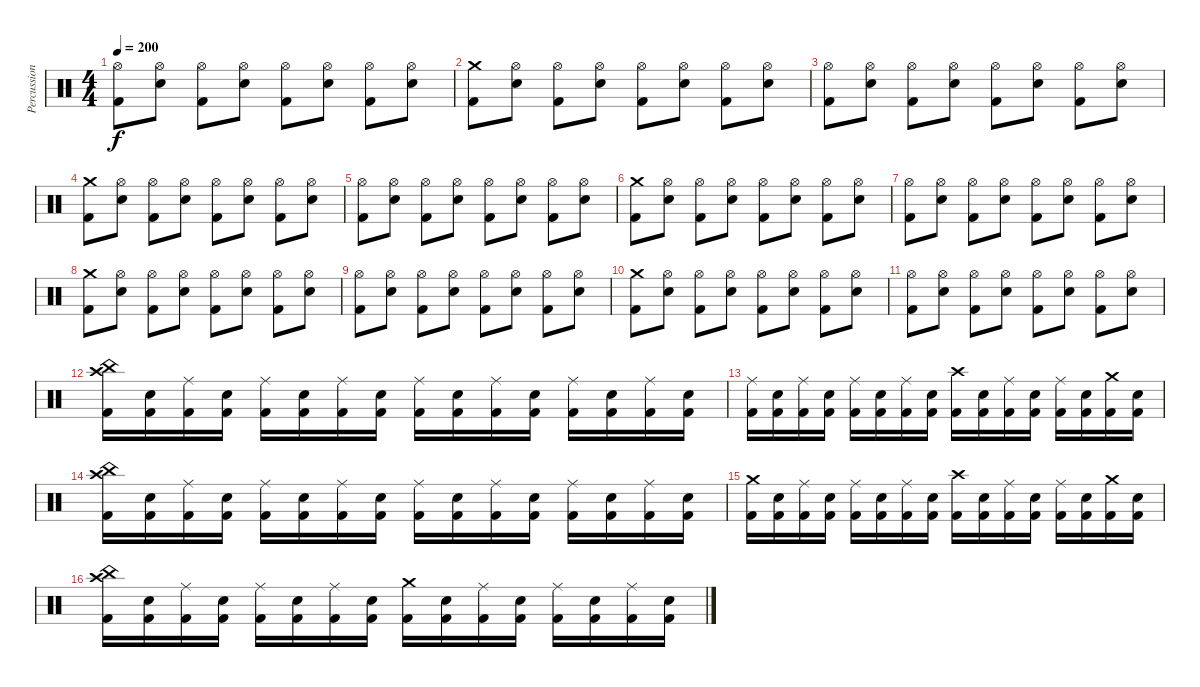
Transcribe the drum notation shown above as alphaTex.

\track ("Percussion" "Percussion") {instrument percussion}
\staff
\articulation defaults
\ts (4 4)
\tempo 200
\clef neutral
\ks c
("Hi-Hat (open)" "Kick (hit) 2").8{dy f} ("Hi-Hat (open)" "Electric Snare (hit)").8 ("Hi-Hat (open)" "Kick (hit) 2").8 ("Hi-Hat (open)" "Electric Snare (hit)").8 ("Hi-Hat (open)" "Kick (hit) 2").8 ("Hi-Hat (open)" "Electric Snare (hit)").8 ("Hi-Hat (open)" "Kick (hit) 2").8 ("Hi-Hat (open)" "Electric Snare (hit)").8 |
("Crash medium (hit)" "Kick (hit) 2").8 ("Hi-Hat (open)" "Electric Snare (hit)").8 ("Hi-Hat (open)" "Kick (hit) 2").8 ("Hi-Hat (open)" "Electric Snare (hit)").8 ("Hi-Hat (open)" "Kick (hit) 2").8 ("Hi-Hat (open)" "Electric Snare (hit)").8 ("Hi-Hat (open)" "Kick (hit) 2").8 ("Hi-Hat (open)" "Electric Snare (hit)").8 |
("Hi-Hat (open)" "Kick (hit) 2").8 ("Hi-Hat (open)" "Electric Snare (hit)").8 ("Hi-Hat (open)" "Kick (hit) 2").8 ("Hi-Hat (open)" "Electric Snare (hit)").8 ("Hi-Hat (open)" "Kick (hit) 2").8 ("Hi-Hat (open)" "Electric Snare (hit)").8 ("Hi-Hat (open)" "Kick (hit) 2").8 ("Hi-Hat (open)" "Electric Snare (hit)").8 |
("Crash medium (hit)" "Kick (hit) 2").8 ("Hi-Hat (open)" "Electric Snare (hit)").8 ("Hi-Hat (open)" "Kick (hit) 2").8 ("Hi-Hat (open)" "Electric Snare (hit)").8 ("Hi-Hat (open)" "Kick (hit) 2").8 ("Hi-Hat (open)" "Electric Snare (hit)").8 ("Hi-Hat (open)" "Kick (hit) 2").8 ("Hi-Hat (open)" "Electric Snare (hit)").8 |
("Hi-Hat (open)" "Kick (hit) 2").8 ("Hi-Hat (open)" "Electric Snare (hit)").8 ("Hi-Hat (open)" "Kick (hit) 2").8 ("Hi-Hat (open)" "Electric Snare (hit)").8 ("Hi-Hat (open)" "Kick (hit) 2").8 ("Hi-Hat (open)" "Electric Snare (hit)").8 ("Hi-Hat (open)" "Kick (hit) 2").8 ("Hi-Hat (open)" "Electric Snare (hit)").8 |
("Crash medium (hit)" "Kick (hit) 2").8 ("Hi-Hat (open)" "Electric Snare (hit)").8 ("Hi-Hat (open)" "Kick (hit) 2").8 ("Hi-Hat (open)" "Electric Snare (hit)").8 ("Hi-Hat (open)" "Kick (hit) 2").8 ("Hi-Hat (open)" "Electric Snare (hit)").8 ("Hi-Hat (open)" "Kick (hit) 2").8 ("Hi-Hat (open)" "Electric Snare (hit)").8 |
("Hi-Hat (open)" "Kick (hit) 2").8 ("Hi-Hat (open)" "Electric Snare (hit)").8 ("Hi-Hat (open)" "Kick (hit) 2").8 ("Hi-Hat (open)" "Electric Snare (hit)").8 ("Hi-Hat (open)" "Kick (hit) 2").8 ("Hi-Hat (open)" "Electric Snare (hit)").8 ("Hi-Hat (open)" "Kick (hit) 2").8 ("Hi-Hat (open)" "Electric Snare (hit)").8 |
("Crash medium (hit)" "Kick (hit) 2").8 ("Hi-Hat (open)" "Electric Snare (hit)").8 ("Hi-Hat (open)" "Kick (hit) 2").8 ("Hi-Hat (open)" "Electric Snare (hit)").8 ("Hi-Hat (open)" "Kick (hit) 2").8 ("Hi-Hat (open)" "Electric Snare (hit)").8 ("Hi-Hat (open)" "Kick (hit) 2").8 ("Hi-Hat (open)" "Electric Snare (hit)").8 |
("Hi-Hat (open)" "Kick (hit) 2").8 ("Hi-Hat (open)" "Electric Snare (hit)").8 ("Hi-Hat (open)" "Kick (hit) 2").8 ("Hi-Hat (open)" "Electric Snare (hit)").8 ("Hi-Hat (open)" "Kick (hit) 2").8 ("Hi-Hat (open)" "Electric Snare (hit)").8 ("Hi-Hat (open)" "Kick (hit) 2").8 ("Hi-Hat (open)" "Electric Snare (hit)").8 |
("Crash medium (hit)" "Kick (hit) 2").8 ("Hi-Hat (open)" "Electric Snare (hit)").8 ("Hi-Hat (open)" "Kick (hit) 2").8 ("Hi-Hat (open)" "Electric Snare (hit)").8 ("Hi-Hat (open)" "Kick (hit) 2").8 ("Hi-Hat (open)" "Electric Snare (hit)").8 ("Hi-Hat (open)" "Kick (hit) 2").8 ("Hi-Hat (open)" "Electric Snare (hit)").8 |
("Hi-Hat (open)" "Kick (hit) 2").8 ("Hi-Hat (open)" "Electric Snare (hit)").8 ("Hi-Hat (open)" "Kick (hit) 2").8 ("Hi-Hat (open)" "Electric Snare (hit)").8 ("Hi-Hat (open)" "Kick (hit) 2").8 ("Hi-Hat (open)" "Electric Snare (hit)").8 ("Hi-Hat (open)" "Kick (hit) 2").8 ("Hi-Hat (open)" "Electric Snare (hit)").8 |
("China (hit)" "Crash high (hit)" "Kick (hit) 2").16 ("Electric Snare (hit)" "Kick (hit) 2").16 ("Ride (middle)" "Kick (hit) 2").16 ("Electric Snare (hit)" "Kick (hit) 2").16 ("Ride (middle)" "Kick (hit) 2").16 ("Electric Snare (hit)" "Kick (hit) 2").16 ("Ride (middle)" "Kick (hit) 2").16 ("Electric Snare (hit)" "Kick (hit) 2").16 ("Ride (middle)" "Kick (hit) 2").16 ("Electric Snare (hit)" "Kick (hit) 2").16 ("Ride (middle)" "Kick (hit) 2").16 ("Electric Snare (hit)" "Kick (hit) 2").16 ("Ride (middle)" "Kick (hit) 2").16 ("Electric Snare (hit)" "Kick (hit) 2").16 ("Ride (middle)" "Kick (hit) 2").16 ("Electric Snare (hit)" "Kick (hit) 2").16 |
("Ride (middle)" "Kick (hit) 2").16 ("Electric Snare (hit)" "Kick (hit) 2").16 ("Ride (middle)" "Kick (hit) 2").16 ("Electric Snare (hit)" "Kick (hit) 2").16 ("Ride (middle)" "Kick (hit) 2").16 ("Electric Snare (hit)" "Kick (hit) 2").16 ("Ride (middle)" "Kick (hit) 2").16 ("Electric Snare (hit)" "Kick (hit) 2").16 ("Crash high (hit)" "Kick (hit) 2").16 ("Electric Snare (hit)" "Kick (hit) 2").16 ("Ride (middle)" "Kick (hit) 2").16 ("Electric Snare (hit)" "Kick (hit) 2").16 ("Ride (middle)" "Kick (hit) 2").16 ("Electric Snare (hit)" "Kick (hit) 2").16 ("Crash medium (hit)" "Kick (hit) 2").16 ("Electric Snare (hit)" "Kick (hit) 2").16 |
("China (hit)" "Crash high (hit)" "Kick (hit) 2").16 ("Electric Snare (hit)" "Kick (hit) 2").16 ("Ride (middle)" "Kick (hit) 2").16 ("Electric Snare (hit)" "Kick (hit) 2").16 ("Ride (middle)" "Kick (hit) 2").16 ("Electric Snare (hit)" "Kick (hit) 2").16 ("Ride (middle)" "Kick (hit) 2").16 ("Electric Snare (hit)" "Kick (hit) 2").16 ("Ride (middle)" "Kick (hit) 2").16 ("Electric Snare (hit)" "Kick (hit) 2").16 ("Ride (middle)" "Kick (hit) 2").16 ("Electric Snare (hit)" "Kick (hit) 2").16 ("Ride (middle)" "Kick (hit) 2").16 ("Electric Snare (hit)" "Kick (hit) 2").16 ("Ride (middle)" "Kick (hit) 2").16 ("Electric Snare (hit)" "Kick (hit) 2").16 |
("Crash medium (hit)" "Kick (hit) 2").16 ("Electric Snare (hit)" "Kick (hit) 2").16 ("Ride (middle)" "Kick (hit) 2").16 ("Electric Snare (hit)" "Kick (hit) 2").16 ("Ride (middle)" "Kick (hit) 2").16 ("Electric Snare (hit)" "Kick (hit) 2").16 ("Ride (middle)" "Kick (hit) 2").16 ("Electric Snare (hit)" "Kick (hit) 2").16 ("Crash high (hit)" "Kick (hit) 2").16 ("Electric Snare (hit)" "Kick (hit) 2").16 ("Ride (middle)" "Kick (hit) 2").16 ("Electric Snare (hit)" "Kick (hit) 2").16 ("Ride (middle)" "Kick (hit) 2").16 ("Electric Snare (hit)" "Kick (hit) 2").16 ("Crash medium (hit)" "Kick (hit) 2").16 ("Electric Snare (hit)" "Kick (hit) 2").16 |
("China (hit)" "Crash high (hit)" "Kick (hit) 2").16 ("Electric Snare (hit)" "Kick (hit) 2").16 ("Ride (middle)" "Kick (hit) 2").16 ("Electric Snare (hit)" "Kick (hit) 2").16 ("Ride (middle)" "Kick (hit) 2").16 ("Electric Snare (hit)" "Kick (hit) 2").16 ("Ride (middle)" "Kick (hit) 2").16 ("Electric Snare (hit)" "Kick (hit) 2").16 ("Crash medium (hit)" "Kick (hit) 2").16 ("Electric Snare (hit)" "Kick (hit) 2").16 ("Ride (middle)" "Kick (hit) 2").16 ("Electric Snare (hit)" "Kick (hit) 2").16 ("Ride (middle)" "Kick (hit) 2").16 ("Electric Snare (hit)" "Kick (hit) 2").16 ("Ride (middle)" "Kick (hit) 2").16 ("Electric Snare (hit)" "Kick (hit) 2").16
